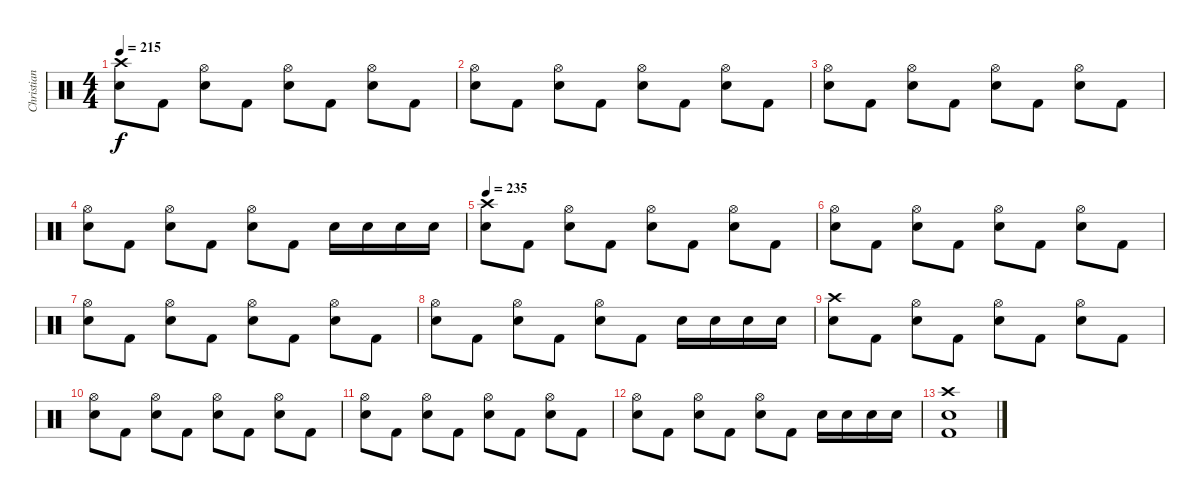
\track ("Christian" "Christian") {instrument percussion}
\staff {score}
\articulation defaults
\ts (4 4)
\tempo 215
\clef neutral
\ks c
("Crash high (hit)" "Snare (hit) 2").8{dy f} "Kick (hit) 2".8 ("Hi-Hat (open)" "Snare (hit) 2").8 "Kick (hit) 2".8 ("Hi-Hat (open)" "Snare (hit) 2").8 "Kick (hit) 2".8 ("Hi-Hat (open)" "Snare (hit) 2").8 "Kick (hit) 2".8 |
("Hi-Hat (open)" "Snare (hit) 2").8 "Kick (hit) 2".8 ("Hi-Hat (open)" "Snare (hit) 2").8 "Kick (hit) 2".8 ("Hi-Hat (open)" "Snare (hit) 2").8 "Kick (hit) 2".8 ("Hi-Hat (open)" "Snare (hit) 2").8 "Kick (hit) 2".8 |
("Hi-Hat (open)" "Snare (hit) 2").8 "Kick (hit) 2".8 ("Hi-Hat (open)" "Snare (hit) 2").8 "Kick (hit) 2".8 ("Hi-Hat (open)" "Snare (hit) 2").8 "Kick (hit) 2".8 ("Hi-Hat (open)" "Snare (hit) 2").8 "Kick (hit) 2".8 |
("Hi-Hat (open)" "Snare (hit) 2").8 "Kick (hit) 2".8 ("Hi-Hat (open)" "Snare (hit) 2").8 "Kick (hit) 2".8 ("Hi-Hat (open)" "Snare (hit) 2").8 "Kick (hit) 2".8 "Snare (hit) 2".16 "Snare (hit) 2".16 "Snare (hit) 2".16 "Snare (hit) 2".16 |
\tempo 235
("Crash high (hit)" "Snare (hit) 2").8 "Kick (hit) 2".8 ("Hi-Hat (open)" "Snare (hit) 2").8 "Kick (hit) 2".8 ("Hi-Hat (open)" "Snare (hit) 2").8 "Kick (hit) 2".8 ("Hi-Hat (open)" "Snare (hit) 2").8 "Kick (hit) 2".8 |
("Hi-Hat (open)" "Snare (hit) 2").8 "Kick (hit) 2".8 ("Hi-Hat (open)" "Snare (hit) 2").8 "Kick (hit) 2".8 ("Hi-Hat (open)" "Snare (hit) 2").8 "Kick (hit) 2".8 ("Hi-Hat (open)" "Snare (hit) 2").8 "Kick (hit) 2".8 |
("Hi-Hat (open)" "Snare (hit) 2").8 "Kick (hit) 2".8 ("Hi-Hat (open)" "Snare (hit) 2").8 "Kick (hit) 2".8 ("Hi-Hat (open)" "Snare (hit) 2").8 "Kick (hit) 2".8 ("Hi-Hat (open)" "Snare (hit) 2").8 "Kick (hit) 2".8 |
("Hi-Hat (open)" "Snare (hit) 2").8 "Kick (hit) 2".8 ("Hi-Hat (open)" "Snare (hit) 2").8 "Kick (hit) 2".8 ("Hi-Hat (open)" "Snare (hit) 2").8 "Kick (hit) 2".8 "Snare (hit) 2".16 "Snare (hit) 2".16 "Snare (hit) 2".16 "Snare (hit) 2".16 |
("Crash high (hit)" "Snare (hit) 2").8 "Kick (hit) 2".8 ("Hi-Hat (open)" "Snare (hit) 2").8 "Kick (hit) 2".8 ("Hi-Hat (open)" "Snare (hit) 2").8 "Kick (hit) 2".8 ("Hi-Hat (open)" "Snare (hit) 2").8 "Kick (hit) 2".8 |
("Hi-Hat (open)" "Snare (hit) 2").8 "Kick (hit) 2".8 ("Hi-Hat (open)" "Snare (hit) 2").8 "Kick (hit) 2".8 ("Hi-Hat (open)" "Snare (hit) 2").8 "Kick (hit) 2".8 ("Hi-Hat (open)" "Snare (hit) 2").8 "Kick (hit) 2".8 |
("Hi-Hat (open)" "Snare (hit) 2").8 "Kick (hit) 2".8 ("Hi-Hat (open)" "Snare (hit) 2").8 "Kick (hit) 2".8 ("Hi-Hat (open)" "Snare (hit) 2").8 "Kick (hit) 2".8 ("Hi-Hat (open)" "Snare (hit) 2").8 "Kick (hit) 2".8 |
("Hi-Hat (open)" "Snare (hit) 2").8 "Kick (hit) 2".8 ("Hi-Hat (open)" "Snare (hit) 2").8 "Kick (hit) 2".8 ("Hi-Hat (open)" "Snare (hit) 2").8 "Kick (hit) 2".8 "Snare (hit) 2".16 "Snare (hit) 2".16 "Snare (hit) 2".16 "Snare (hit) 2".16 |
("Crash high (hit)" "Snare (hit) 2" "Kick (hit) 2").1
